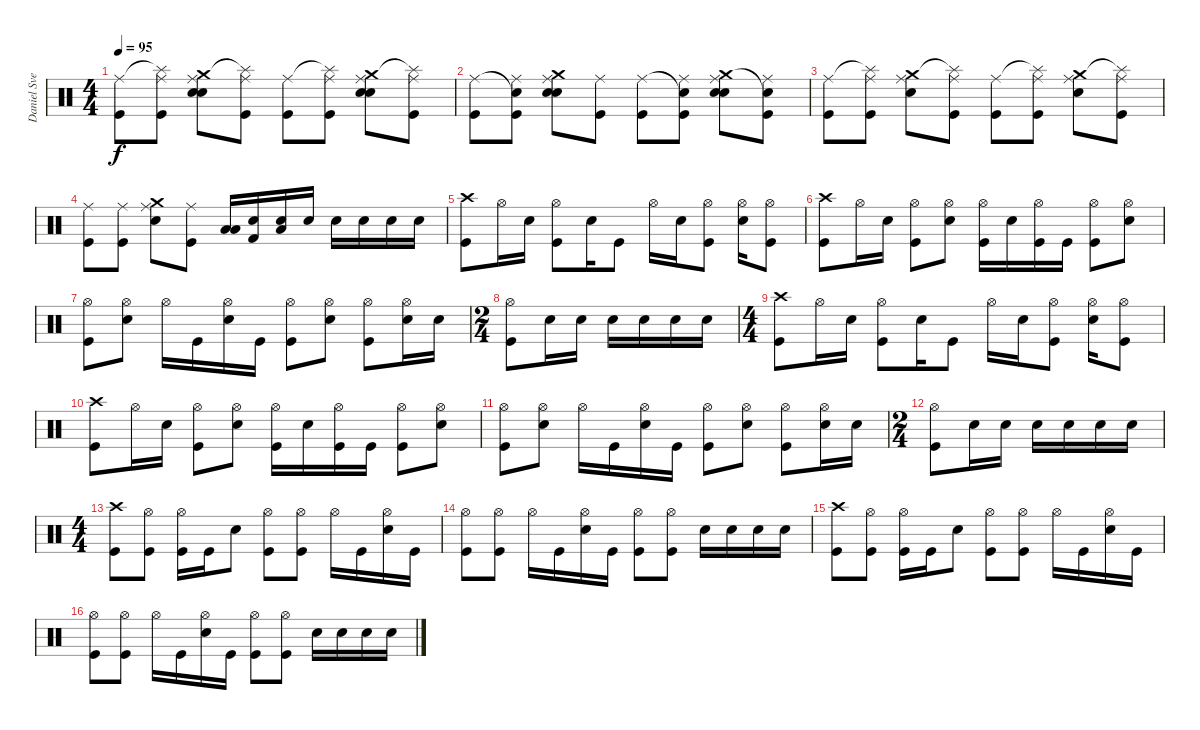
\track ("Daniel Svensson" "Daniel Sve") {instrument percussion}
\staff {score}
\articulation defaults
\ts (4 4)
\tempo 95
\clef neutral
\ks c
("Ride (middle)" "Kick (hit)").8{dy f} ("Splash (hit)"{t} "Ride (middle)" "Kick (hit)").8 ("Crash medium (hit)" "Snare (hit) 2" "Ride (middle)" "Snare (hit) 2").8 ("Splash (hit)"{t} "Ride (middle)" "Kick (hit)").8 ("Ride (middle)" "Kick (hit)").8 ("Splash (hit)"{t} "Ride (middle)" "Kick (hit)").8 ("Crash medium (hit)" "Snare (hit) 2" "Ride (middle)" "Snare (hit) 2").8 ("Splash (hit)"{t} "Ride (middle)" "Kick (hit)").8 |
("Ride (middle)" "Kick (hit)").8 ("Snare (hit)"{t} "Ride (middle)" "Kick (hit)").8 ("Crash medium (hit)" "Snare (hit) 2" "Ride (middle)" "Snare (hit) 2").8 ("Ride (middle)" "Kick (hit)").8 ("Ride (middle)" "Kick (hit)").8 ("Snare (hit)"{t} "Ride (middle)" "Kick (hit)").8 ("Crash medium (hit)" "Snare (hit) 2" "Ride (middle)" "Snare (hit) 2").8 ("Snare (hit)"{t} "Ride (middle)" "Kick (hit)").8 |
("Ride (middle)" "Kick (hit)").8 ("Splash (hit)"{t} "Ride (middle)" "Kick (hit)").8 ("Crash medium (hit)" "Ride (middle)" "Snare (hit) 2").8 ("Splash (hit)"{t} "Ride (middle)" "Kick (hit)").8 ("Ride (middle)" "Kick (hit)").8 ("Splash (hit)"{t} "Ride (middle)" "Kick (hit)").8 ("Crash medium (hit)" "Ride (middle)" "Snare (hit) 2").8 ("Splash (hit)"{t} "Ride (middle)" "Kick (hit)").8 |
("Ride (middle)" "Kick (hit)").8 ("Ride (middle)" "Kick (hit)").8 ("Crash medium (hit)" "Ride (middle)" "Snare (hit) 2").8 ("Ride (middle)" "Kick (hit)").8 ("Low Floor Tom (hit)" "Low Floor Tom (hit)").16 ("Snare (hit) 2" "Kick (hit) 2").16 ("Snare (hit) 2" "Low Floor Tom (hit)").16 "Snare (hit) 2".16 "Snare (hit) 2".16 "Snare (hit) 2".16 "Snare (hit) 2".16 "Snare (hit) 2".16 |
("Crash high (hit)" "Kick (hit)").8 "Hi-Hat (open)".16 "Snare (hit) 2".16 ("Hi-Hat (open)" "Kick (hit)").8 "Snare (hit) 2".16 "Kick (hit)".8 "Hi-Hat (open)".16 "Snare (hit) 2".16 ("Hi-Hat (open)" "Kick (hit)").8 ("Hi-Hat (open)" "Snare (hit) 2").16 ("Hi-Hat (open)" "Kick (hit)").8 |
("Crash high (hit)" "Kick (hit)").8 "Hi-Hat (open)".16 "Electric Snare (hit)".16 ("Hi-Hat (open)" "Kick (hit)").8 ("Hi-Hat (open)" "Electric Snare (hit)").8 ("Hi-Hat (open)" "Kick (hit)").16 "Electric Snare (hit)".16 ("Hi-Hat (open)" "Kick (hit)").16 "Kick (hit)".16 ("Hi-Hat (open)" "Kick (hit)").8 ("Hi-Hat (open)" "Electric Snare (hit)").8 |
("Hi-Hat (open)" "Kick (hit)").8 ("Hi-Hat (open)" "Snare (hit) 2").8 "Hi-Hat (open)".16 "Kick (hit)".16 ("Hi-Hat (open)" "Snare (hit) 2").16 "Kick (hit)".16 ("Hi-Hat (open)" "Kick (hit)").8 ("Hi-Hat (open)" "Electric Snare (hit)").8 ("Hi-Hat (open)" "Kick (hit)").8 ("Hi-Hat (open)" "Electric Snare (hit)").16 "Electric Snare (hit)".16 |
\ts (2 4)
("Hi-Hat (open)" "Kick (hit)").8 "Electric Snare (hit)".16 "Electric Snare (hit)".16 "Electric Snare (hit)".16 "Electric Snare (hit)".16 "Electric Snare (hit)".16 "Electric Snare (hit)".16 |
\ts (4 4)
("Crash high (hit)" "Kick (hit)").8 "Hi-Hat (open)".16 "Snare (hit) 2".16 ("Hi-Hat (open)" "Kick (hit)").8 "Snare (hit) 2".16 "Kick (hit)".8 "Hi-Hat (open)".16 "Snare (hit) 2".16 ("Hi-Hat (open)" "Kick (hit)").8 ("Hi-Hat (open)" "Snare (hit) 2").16 ("Hi-Hat (open)" "Kick (hit)").8 |
("Crash high (hit)" "Kick (hit)").8 "Hi-Hat (open)".16 "Electric Snare (hit)".16 ("Hi-Hat (open)" "Kick (hit)").8 ("Hi-Hat (open)" "Electric Snare (hit)").8 ("Hi-Hat (open)" "Kick (hit)").16 "Electric Snare (hit)".16 ("Hi-Hat (open)" "Kick (hit)").16 "Kick (hit)".16 ("Hi-Hat (open)" "Kick (hit)").8 ("Hi-Hat (open)" "Electric Snare (hit)").8 |
("Hi-Hat (open)" "Kick (hit)").8 ("Hi-Hat (open)" "Snare (hit) 2").8 "Hi-Hat (open)".16 "Kick (hit)".16 ("Hi-Hat (open)" "Snare (hit) 2").16 "Kick (hit)".16 ("Hi-Hat (open)" "Kick (hit)").8 ("Hi-Hat (open)" "Electric Snare (hit)").8 ("Hi-Hat (open)" "Kick (hit)").8 ("Hi-Hat (open)" "Electric Snare (hit)").16 "Electric Snare (hit)".16 |
\ts (2 4)
("Hi-Hat (open)" "Kick (hit)").8 "Electric Snare (hit)".16 "Electric Snare (hit)".16 "Electric Snare (hit)".16 "Electric Snare (hit)".16 "Electric Snare (hit)".16 "Electric Snare (hit)".16 |
\ts (4 4)
("Crash high (hit)" "Kick (hit)").8 ("Hi-Hat (open)" "Kick (hit)").8 ("Hi-Hat (open)" "Kick (hit)").16 "Kick (hit)".16 "Electric Snare (hit)".8 ("Hi-Hat (open)" "Kick (hit)").8 ("Hi-Hat (open)" "Kick (hit)").8 "Hi-Hat (open)".16 "Kick (hit)".16 ("Hi-Hat (open)" "Electric Snare (hit)").16 "Kick (hit)".16 |
("Hi-Hat (open)" "Kick (hit)").8 ("Hi-Hat (open)" "Kick (hit)").8 "Hi-Hat (open)".16 "Kick (hit)".16 ("Hi-Hat (open)" "Electric Snare (hit)").16 "Kick (hit)".16 ("Hi-Hat (open)" "Kick (hit)").8 ("Hi-Hat (open)" "Kick (hit)").8 "Electric Snare (hit)".16 "Electric Snare (hit)".16 "Electric Snare (hit)".16 "Electric Snare (hit)".16 |
("Crash high (hit)" "Kick (hit)").8 ("Hi-Hat (open)" "Kick (hit)").8 ("Hi-Hat (open)" "Kick (hit)").16 "Kick (hit)".16 "Electric Snare (hit)".8 ("Hi-Hat (open)" "Kick (hit)").8 ("Hi-Hat (open)" "Kick (hit)").8 "Hi-Hat (open)".16 "Kick (hit)".16 ("Hi-Hat (open)" "Electric Snare (hit)").16 "Kick (hit)".16 |
("Hi-Hat (open)" "Kick (hit)").8 ("Hi-Hat (open)" "Kick (hit)").8 "Hi-Hat (open)".16 "Kick (hit)".16 ("Hi-Hat (open)" "Electric Snare (hit)").16 "Kick (hit)".16 ("Hi-Hat (open)" "Kick (hit)").8 ("Hi-Hat (open)" "Kick (hit)").8 "Electric Snare (hit)".16 "Electric Snare (hit)".16 "Electric Snare (hit)".16 "Electric Snare (hit)".16
